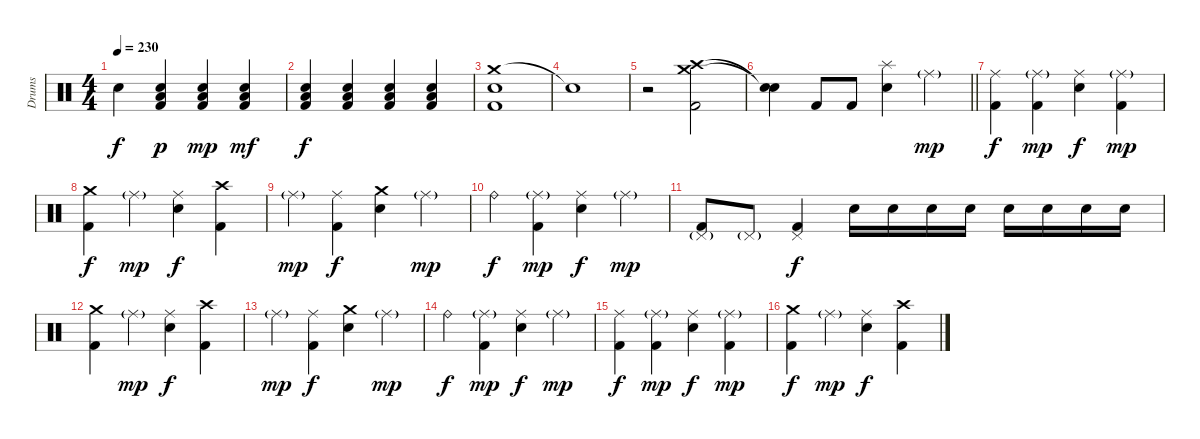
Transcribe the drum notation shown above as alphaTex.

\track ("Drums" "Drums") {instrument percussion}
\staff {score}
\articulation defaults
\ts (4 4)
\tempo 230
\clef neutral
\ks c "Snare (hit)"{t}.4{dy f}
("Low Floor Tom (hit)" "Electric Snare (hit)" "Kick (hit) 2").4{dy p} ("Low Floor Tom (hit)" "Electric Snare (hit)" "Kick (hit) 2").4{dy mp} ("Low Floor Tom (hit)" "Electric Snare (hit)" "Kick (hit) 2").4{dy mf} |
("Low Floor Tom (hit)" "Electric Snare (hit)" "Kick (hit) 2").4{dy f} ("Low Floor Tom (hit)" "Electric Snare (hit)" "Kick (hit) 2").4 ("Low Floor Tom (hit)" "Electric Snare (hit)" "Kick (hit) 2").4 ("Low Floor Tom (hit)" "Electric Snare (hit)" "Kick (hit) 2").4 |
("Crash medium (hit)" "Electric Snare (hit)" "Kick (hit) 2").1 |
"Snare (hit)"{t}.1 |
r.2 ("Crash medium (hit)" "Crash high (hit)" "Kick (hit) 2").2 |
\barLineRight lightlight
("Snare (hit)"{t} "Snare (hit)"{t}).4 "Kick (hit) 2".8 "Kick (hit) 2".8 ("Splash (hit)" "Electric Snare (hit)").4 "Ride (middle)"{g}.4{dy mp} |
("Ride (middle)" "Kick (hit) 2").4{dy f} ("Ride (middle)"{g} "Kick (hit) 2").4{dy mp} ("Ride (middle)" "Electric Snare (hit)").4{dy f} ("Ride (middle)"{g} "Kick (hit) 2").4{dy mp} |
("Crash medium (hit)" "Kick (hit) 2").4{dy f} "Ride (middle)"{g}.4{dy mp} ("Ride (middle)" "Electric Snare (hit)").4{dy f} ("Crash high (hit)" "Kick (hit) 2").4 |
"Ride (middle)"{g}.4{dy mp} ("Ride (middle)" "Kick (hit) 2").4{dy f} ("Crash medium (hit)" "Electric Snare (hit)").4 "Ride (middle)"{g}.4{dy mp} |
"Ride (bell)".4{dy f} ("Ride (middle)"{g} "Kick (hit) 2").4{dy mp} ("Ride (middle)" "Electric Snare (hit)").4{dy f} "Ride (middle)"{g}.4{dy mp} |
("Pedal Hi-Hat (hit)"{g} "Kick (hit) 2").8 "Pedal Hi-Hat (hit)"{g}.8 ("Pedal Hi-Hat (hit)" "Kick (hit) 2").4{dy f} "Electric Snare (hit)".16 "Electric Snare (hit)".16 "Electric Snare (hit)".16 "Electric Snare (hit)".16 "Electric Snare (hit)".16 "Electric Snare (hit)".16 "Electric Snare (hit)".16 "Electric Snare (hit)".16 |
("Crash medium (hit)" "Kick (hit) 2").4 "Ride (middle)"{g}.4{dy mp} ("Ride (middle)" "Electric Snare (hit)").4{dy f} ("Crash high (hit)" "Kick (hit) 2").4 |
"Ride (middle)"{g}.4{dy mp} ("Ride (middle)" "Kick (hit) 2").4{dy f} ("Crash medium (hit)" "Electric Snare (hit)").4 "Ride (middle)"{g}.4{dy mp} |
"Ride (bell)".4{dy f} ("Ride (middle)"{g} "Kick (hit) 2").4{dy mp} ("Ride (middle)" "Electric Snare (hit)").4{dy f} "Ride (middle)"{g}.4{dy mp} |
("Ride (middle)" "Kick (hit) 2").4{dy f} ("Ride (middle)"{g} "Kick (hit) 2").4{dy mp} ("Ride (middle)" "Electric Snare (hit)").4{dy f} ("Ride (middle)"{g} "Kick (hit) 2").4{dy mp} |
("Crash medium (hit)" "Kick (hit) 2").4{dy f} "Ride (middle)"{g}.4{dy mp} ("Ride (middle)" "Electric Snare (hit)").4{dy f} ("Crash high (hit)" "Kick (hit) 2").4
